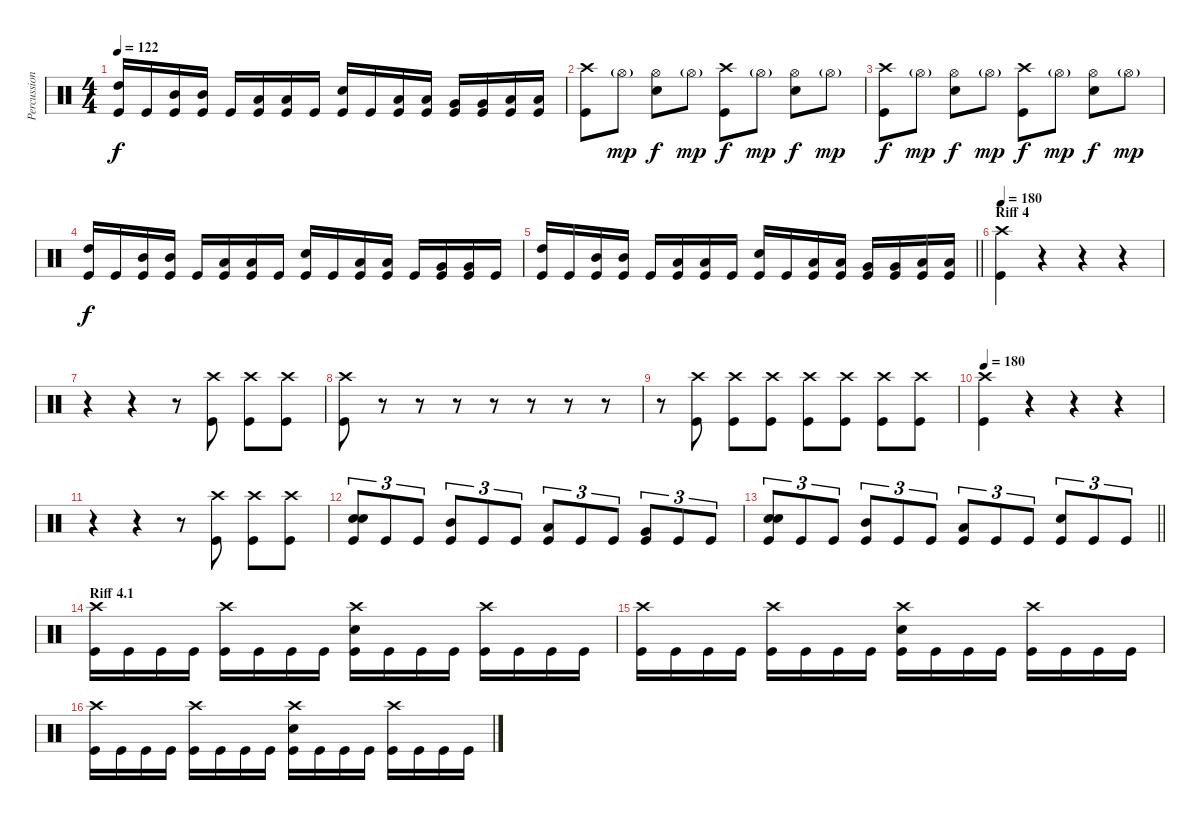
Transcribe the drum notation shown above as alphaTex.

\track ("Percussion" "Percussion") {instrument percussion}
\staff {score}
\articulation defaults
\ts (4 4)
\tempo 122
\clef neutral
\ks c
("High Tom (hit)" "Kick (hit)").16{dy f} "Kick (hit)".16 ("Mid Tom (hit)" "Kick (hit)").16 ("Mid Tom (hit)" "Kick (hit)").16 "Kick (hit)".16 ("Low Tom (hit)" "Kick (hit)").16 ("Low Tom (hit)" "Kick (hit)").16 "Kick (hit)".16 ("Snare (hit) 2" "Kick (hit)").16 "Kick (hit)".16 ("Low Tom (hit)" "Kick (hit)").16 ("Low Tom (hit)" "Kick (hit)").16 ("Very Low Tom (hit)" "Kick (hit)").16 ("Very Low Tom (hit)" "Kick (hit)").16 ("Low Floor Tom (hit)" "Kick (hit)").16 ("Low Floor Tom (hit)" "Kick (hit)").16 |
("Crash high (hit)" "Kick (hit)").8 "Hi-Hat (open)"{g}.8{dy mp} ("Hi-Hat (open)" "Snare (hit) 2").8{dy f} "Hi-Hat (open)"{g}.8{dy mp} ("Crash high (hit)" "Kick (hit)").8{dy f} "Hi-Hat (open)"{g}.8{dy mp} ("Hi-Hat (open)" "Snare (hit) 2").8{dy f} "Hi-Hat (open)"{g}.8{dy mp} |
("Crash high (hit)" "Kick (hit)").8{dy f} "Hi-Hat (open)"{g}.8{dy mp} ("Hi-Hat (open)" "Snare (hit) 2").8{dy f} "Hi-Hat (open)"{g}.8{dy mp} ("Crash high (hit)" "Kick (hit)").8{dy f} "Hi-Hat (open)"{g}.8{dy mp} ("Hi-Hat (open)" "Snare (hit) 2").8{dy f} "Hi-Hat (open)"{g}.8{dy mp} |
("High Tom (hit)" "Kick (hit)").16{dy f} "Kick (hit)".16 ("Mid Tom (hit)" "Kick (hit)").16 ("Mid Tom (hit)" "Kick (hit)").16 "Kick (hit)".16 ("Low Tom (hit)" "Kick (hit)").16 ("Low Tom (hit)" "Kick (hit)").16 "Kick (hit)".16 ("Snare (hit) 2" "Kick (hit)").16 "Kick (hit)".16 ("Low Tom (hit)" "Kick (hit)").16 ("Low Tom (hit)" "Kick (hit)").16 "Kick (hit)".16 ("Very Low Tom (hit)" "Kick (hit)").16 ("Very Low Tom (hit)" "Kick (hit)").16 "Kick (hit)".16 |
\barLineRight lightlight
("High Tom (hit)" "Kick (hit)").16 "Kick (hit)".16 ("Mid Tom (hit)" "Kick (hit)").16 ("Mid Tom (hit)" "Kick (hit)").16 "Kick (hit)".16 ("Low Tom (hit)" "Kick (hit)").16 ("Low Tom (hit)" "Kick (hit)").16 "Kick (hit)".16 ("Snare (hit) 2" "Kick (hit)").16 "Kick (hit)".16 ("Low Tom (hit)" "Kick (hit)").16 ("Low Tom (hit)" "Kick (hit)").16 ("Very Low Tom (hit)" "Kick (hit)").16 ("Very Low Tom (hit)" "Kick (hit)").16 ("Low Floor Tom (hit)" "Kick (hit)").16 ("Low Floor Tom (hit)" "Kick (hit)").16 |
\section ("" "Riff 4")
\tempo 180
("Crash high (hit)" "Kick (hit)").4 r.4 r.4 r.4 |
r.4 r.4 r.8 ("Kick (hit)" "Crash high (hit)").8 ("Kick (hit)" "Crash high (hit)").8 ("Kick (hit)" "Crash high (hit)").8 |
("Kick (hit)" "Crash high (hit)").8 r.8 r.8 r.8 r.8 r.8 r.8 r.8 |
r.8 ("Kick (hit)" "Crash high (hit)").8 ("Kick (hit)" "Crash high (hit)").8 ("Kick (hit)" "Crash high (hit)").8 ("Kick (hit)" "Crash high (hit)").8 ("Kick (hit)" "Crash high (hit)").8 ("Kick (hit)" "Crash high (hit)").8 ("Kick (hit)" "Crash high (hit)").8 |
\tempo 180
("Crash high (hit)" "Kick (hit)").4 r.4 r.4 r.4 |
r.4 r.4 r.8 ("Kick (hit)" "Crash high (hit)").8 ("Kick (hit)" "Crash high (hit)").8 ("Kick (hit)" "Crash high (hit)").8 |
("Snare (hit) 2" "Snare (hit) 2" "Kick (hit)").8{tu (3 2)} "Kick (hit)".8{tu (3 2)} "Kick (hit)".8{tu (3 2)} ("Mid Tom (hit)" "Kick (hit)").8{tu (3 2)} "Kick (hit)".8{tu (3 2)} "Kick (hit)".8{tu (3 2)} ("Low Tom (hit)" "Kick (hit)").8{tu (3 2)} "Kick (hit)".8{tu (3 2)} "Kick (hit)".8{tu (3 2)} ("Very Low Tom (hit)" "Kick (hit)").8{tu (3 2)} "Kick (hit)".8{tu (3 2)} "Kick (hit)".8{tu (3 2)} |
\barLineRight lightlight
("Snare (hit) 2" "Snare (hit) 2" "Kick (hit)").8{tu (3 2)} "Kick (hit)".8{tu (3 2)} "Kick (hit)".8{tu (3 2)} ("Mid Tom (hit)" "Kick (hit)").8{tu (3 2)} "Kick (hit)".8{tu (3 2)} "Kick (hit)".8{tu (3 2)} ("Low Tom (hit)" "Kick (hit)").8{tu (3 2)} "Kick (hit)".8{tu (3 2)} "Kick (hit)".8{tu (3 2)} ("Snare (hit) 2" "Kick (hit)").8{tu (3 2)} "Kick (hit)".8{tu (3 2)} "Kick (hit)".8{tu (3 2)} |
\section ("" "Riff 4.1")
("Crash high (hit)" "Kick (hit)").16 "Kick (hit)".16 "Kick (hit)".16 "Kick (hit)".16 ("Crash high (hit)" "Kick (hit)").16 "Kick (hit)".16 "Kick (hit)".16 "Kick (hit)".16 ("Crash high (hit)" "Snare (hit) 2" "Kick (hit)").16 "Kick (hit)".16 "Kick (hit)".16 "Kick (hit)".16 ("Crash high (hit)" "Kick (hit)").16 "Kick (hit)".16 "Kick (hit)".16 "Kick (hit)".16 |
("Crash high (hit)" "Kick (hit)").16 "Kick (hit)".16 "Kick (hit)".16 "Kick (hit)".16 ("Crash high (hit)" "Kick (hit)").16 "Kick (hit)".16 "Kick (hit)".16 "Kick (hit)".16 ("Crash high (hit)" "Snare (hit) 2" "Kick (hit)").16 "Kick (hit)".16 "Kick (hit)".16 "Kick (hit)".16 ("Crash high (hit)" "Kick (hit)").16 "Kick (hit)".16 "Kick (hit)".16 "Kick (hit)".16 |
("Crash high (hit)" "Kick (hit)").16 "Kick (hit)".16 "Kick (hit)".16 "Kick (hit)".16 ("Crash high (hit)" "Kick (hit)").16 "Kick (hit)".16 "Kick (hit)".16 "Kick (hit)".16 ("Crash high (hit)" "Snare (hit) 2" "Kick (hit)").16 "Kick (hit)".16 "Kick (hit)".16 "Kick (hit)".16 ("Crash high (hit)" "Kick (hit)").16 "Kick (hit)".16 "Kick (hit)".16 "Kick (hit)".16
